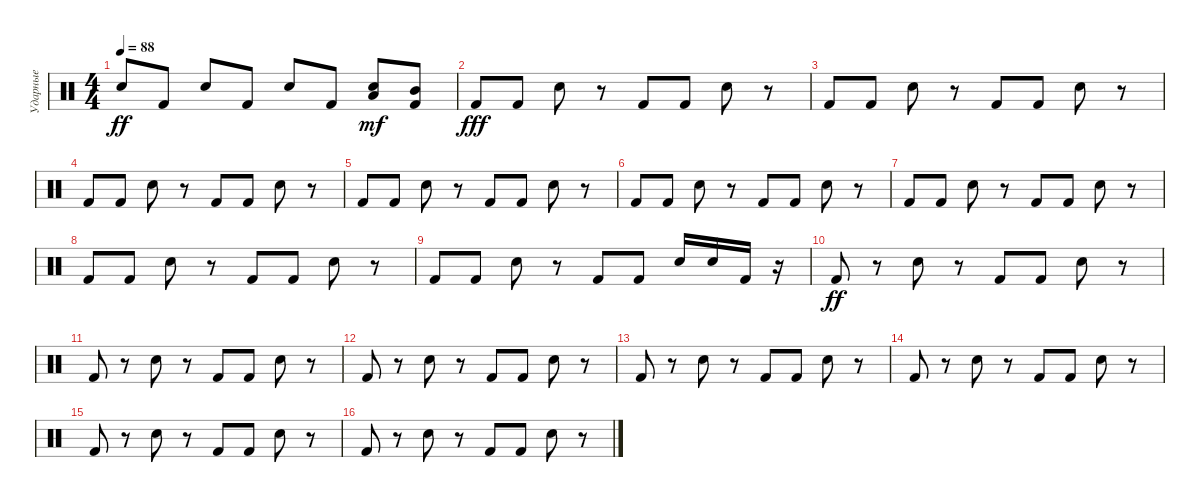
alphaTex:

\track ("Ударные" "Ударные") {instrument percussion}
\staff {score}
\articulation defaults
\ts (4 4)
\tempo 88
\clef neutral
\ks c "Electric Snare (hit)".8{dy ff} "Kick (hit) 2".8 "Electric Snare (hit)".8 "Kick (hit) 2".8 "Electric Snare (hit)".8 "Kick (hit) 2".8
("Electric Snare (hit)" "Low Tom (hit)").8{dy mf} ("Kick (hit) 2" "Mid Tom (hit)").8 |
"Kick (hit) 2".8{dy fff} "Kick (hit) 2".8 "Electric Snare (hit)".8 r.8 "Kick (hit) 2".8 "Kick (hit) 2".8 "Electric Snare (hit)".8 r.8 |
"Kick (hit) 2".8 "Kick (hit) 2".8 "Electric Snare (hit)".8 r.8 "Kick (hit) 2".8 "Kick (hit) 2".8 "Electric Snare (hit)".8 r.8 |
"Kick (hit) 2".8 "Kick (hit) 2".8 "Electric Snare (hit)".8 r.8 "Kick (hit) 2".8 "Kick (hit) 2".8 "Electric Snare (hit)".8 r.8 |
"Kick (hit) 2".8 "Kick (hit) 2".8 "Electric Snare (hit)".8 r.8 "Kick (hit) 2".8 "Kick (hit) 2".8 "Electric Snare (hit)".8 r.8 |
"Kick (hit) 2".8 "Kick (hit) 2".8 "Electric Snare (hit)".8 r.8 "Kick (hit) 2".8 "Kick (hit) 2".8 "Electric Snare (hit)".8 r.8 |
"Kick (hit) 2".8 "Kick (hit) 2".8 "Electric Snare (hit)".8 r.8 "Kick (hit) 2".8 "Kick (hit) 2".8 "Electric Snare (hit)".8 r.8 |
"Kick (hit) 2".8 "Kick (hit) 2".8 "Electric Snare (hit)".8 r.8 "Kick (hit) 2".8 "Kick (hit) 2".8 "Electric Snare (hit)".8 r.8 |
"Kick (hit) 2".8 "Kick (hit) 2".8 "Electric Snare (hit)".8 r.8 "Kick (hit) 2".8 "Kick (hit) 2".8 "Electric Snare (hit)".16 "Electric Snare (hit)".16 "Kick (hit) 2".16 r.16 |
"Kick (hit) 2".8{dy ff} r.8 "Electric Snare (hit)".8 r.8 "Kick (hit) 2".8 "Kick (hit) 2".8 "Electric Snare (hit)".8 r.8 |
"Kick (hit) 2".8 r.8 "Electric Snare (hit)".8 r.8 "Kick (hit) 2".8 "Kick (hit) 2".8 "Electric Snare (hit)".8 r.8 |
"Kick (hit) 2".8 r.8 "Electric Snare (hit)".8 r.8 "Kick (hit) 2".8 "Kick (hit) 2".8 "Electric Snare (hit)".8 r.8 |
"Kick (hit) 2".8 r.8 "Electric Snare (hit)".8 r.8 "Kick (hit) 2".8 "Kick (hit) 2".8 "Electric Snare (hit)".8 r.8 |
"Kick (hit) 2".8 r.8 "Electric Snare (hit)".8 r.8 "Kick (hit) 2".8 "Kick (hit) 2".8 "Electric Snare (hit)".8 r.8 |
"Kick (hit) 2".8 r.8 "Electric Snare (hit)".8 r.8 "Kick (hit) 2".8 "Kick (hit) 2".8 "Electric Snare (hit)".8 r.8 |
"Kick (hit) 2".8 r.8 "Electric Snare (hit)".8 r.8 "Kick (hit) 2".8 "Kick (hit) 2".8 "Electric Snare (hit)".8 r.8
